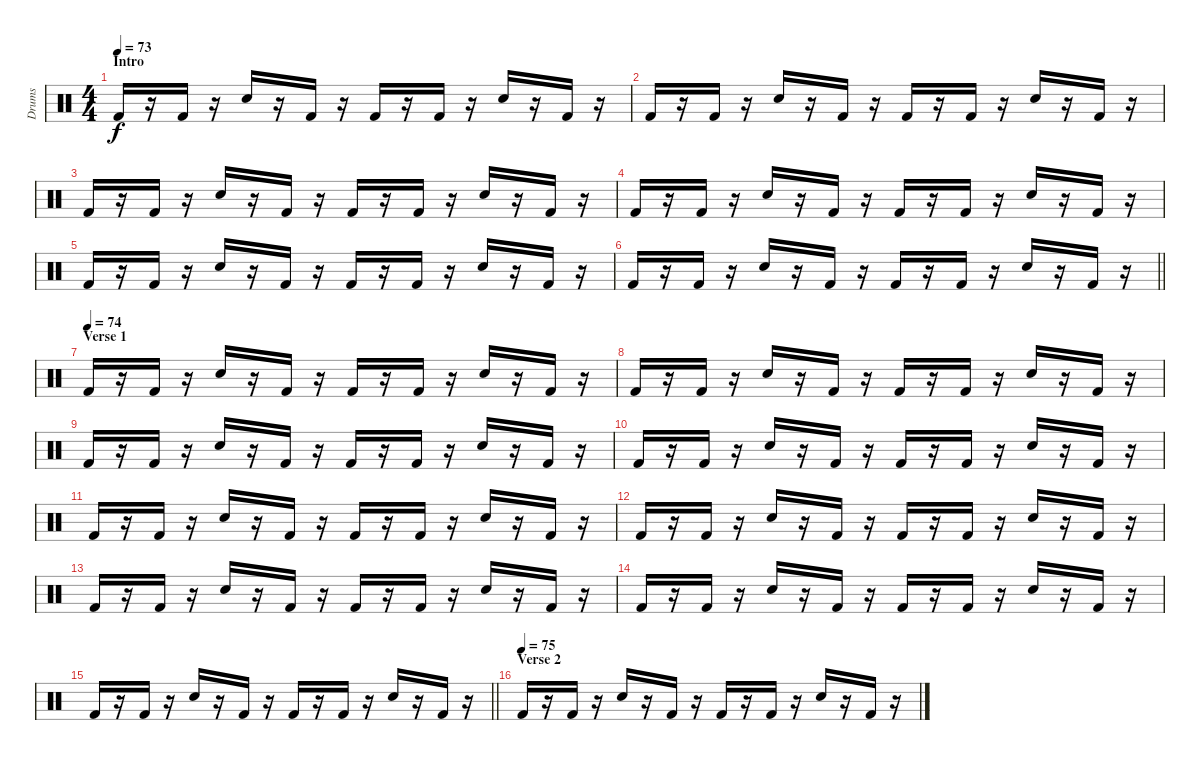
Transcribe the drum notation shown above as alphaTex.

\track ("Drums" "Drums") {instrument percussion}
\staff {score}
\articulation defaults
\ts (4 4)
\section ("" "Intro")
\tempo 73
\clef neutral
\ks c "Kick (hit) 2".16{dy f}
r.16 "Kick (hit) 2".16 r.16 "Snare (hit) 2".16 r.16 "Kick (hit) 2".16 r.16 "Kick (hit) 2".16 r.16 "Kick (hit) 2".16 r.16 "Snare (hit) 2".16 r.16 "Kick (hit) 2".16 r.16 |
"Kick (hit) 2".16 r.16 "Kick (hit) 2".16 r.16 "Snare (hit) 2".16 r.16 "Kick (hit) 2".16 r.16 "Kick (hit) 2".16 r.16 "Kick (hit) 2".16 r.16 "Snare (hit) 2".16 r.16 "Kick (hit) 2".16 r.16 |
"Kick (hit) 2".16 r.16 "Kick (hit) 2".16 r.16 "Snare (hit) 2".16 r.16 "Kick (hit) 2".16 r.16 "Kick (hit) 2".16 r.16 "Kick (hit) 2".16 r.16 "Snare (hit) 2".16 r.16 "Kick (hit) 2".16 r.16 |
"Kick (hit) 2".16 r.16 "Kick (hit) 2".16 r.16 "Snare (hit) 2".16 r.16 "Kick (hit) 2".16 r.16 "Kick (hit) 2".16 r.16 "Kick (hit) 2".16 r.16 "Snare (hit) 2".16 r.16 "Kick (hit) 2".16 r.16 |
"Kick (hit) 2".16 r.16 "Kick (hit) 2".16 r.16 "Snare (hit) 2".16 r.16 "Kick (hit) 2".16 r.16 "Kick (hit) 2".16 r.16 "Kick (hit) 2".16 r.16 "Snare (hit) 2".16 r.16 "Kick (hit) 2".16 r.16 |
\barLineRight lightlight "Kick (hit) 2".16
r.16 "Kick (hit) 2".16 r.16 "Snare (hit) 2".16 r.16 "Kick (hit) 2".16 r.16 "Kick (hit) 2".16 r.16 "Kick (hit) 2".16 r.16 "Snare (hit) 2".16 r.16 "Kick (hit) 2".16 r.16 |
\section ("" "Verse 1")
\tempo (74)
"Kick (hit) 2".16 r.16 "Kick (hit) 2".16 r.16 "Snare (hit) 2".16 r.16 "Kick (hit) 2".16 r.16 "Kick (hit) 2".16 r.16 "Kick (hit) 2".16 r.16 "Snare (hit) 2".16 r.16 "Kick (hit) 2".16 r.16 |
"Kick (hit) 2".16 r.16 "Kick (hit) 2".16 r.16 "Snare (hit) 2".16 r.16 "Kick (hit) 2".16 r.16 "Kick (hit) 2".16 r.16 "Kick (hit) 2".16 r.16 "Snare (hit) 2".16 r.16 "Kick (hit) 2".16 r.16 |
"Kick (hit) 2".16 r.16 "Kick (hit) 2".16 r.16 "Snare (hit) 2".16 r.16 "Kick (hit) 2".16 r.16 "Kick (hit) 2".16 r.16 "Kick (hit) 2".16 r.16 "Snare (hit) 2".16 r.16 "Kick (hit) 2".16 r.16 |
"Kick (hit) 2".16 r.16 "Kick (hit) 2".16 r.16 "Snare (hit) 2".16 r.16 "Kick (hit) 2".16 r.16 "Kick (hit) 2".16 r.16 "Kick (hit) 2".16 r.16 "Snare (hit) 2".16 r.16 "Kick (hit) 2".16 r.16 |
"Kick (hit) 2".16 r.16 "Kick (hit) 2".16 r.16 "Snare (hit) 2".16 r.16 "Kick (hit) 2".16 r.16 "Kick (hit) 2".16 r.16 "Kick (hit) 2".16 r.16 "Snare (hit) 2".16 r.16 "Kick (hit) 2".16 r.16 |
"Kick (hit) 2".16 r.16 "Kick (hit) 2".16 r.16 "Snare (hit) 2".16 r.16 "Kick (hit) 2".16 r.16 "Kick (hit) 2".16 r.16 "Kick (hit) 2".16 r.16 "Snare (hit) 2".16 r.16 "Kick (hit) 2".16 r.16 |
"Kick (hit) 2".16 r.16 "Kick (hit) 2".16 r.16 "Snare (hit) 2".16 r.16 "Kick (hit) 2".16 r.16 "Kick (hit) 2".16 r.16 "Kick (hit) 2".16 r.16 "Snare (hit) 2".16 r.16 "Kick (hit) 2".16 r.16 |
"Kick (hit) 2".16 r.16 "Kick (hit) 2".16 r.16 "Snare (hit) 2".16 r.16 "Kick (hit) 2".16 r.16 "Kick (hit) 2".16 r.16 "Kick (hit) 2".16 r.16 "Snare (hit) 2".16 r.16 "Kick (hit) 2".16 r.16 |
\barLineRight lightlight "Kick (hit) 2".16
r.16 "Kick (hit) 2".16 r.16 "Snare (hit) 2".16 r.16 "Kick (hit) 2".16 r.16 "Kick (hit) 2".16 r.16 "Kick (hit) 2".16 r.16 "Snare (hit) 2".16 r.16 "Kick (hit) 2".16 r.16 |
\section ("" "Verse 2")
\tempo (75)
"Kick (hit) 2".16 r.16 "Kick (hit) 2".16 r.16 "Snare (hit) 2".16 r.16 "Kick (hit) 2".16 r.16 "Kick (hit) 2".16 r.16 "Kick (hit) 2".16 r.16 "Snare (hit) 2".16 r.16 "Kick (hit) 2".16 r.16
